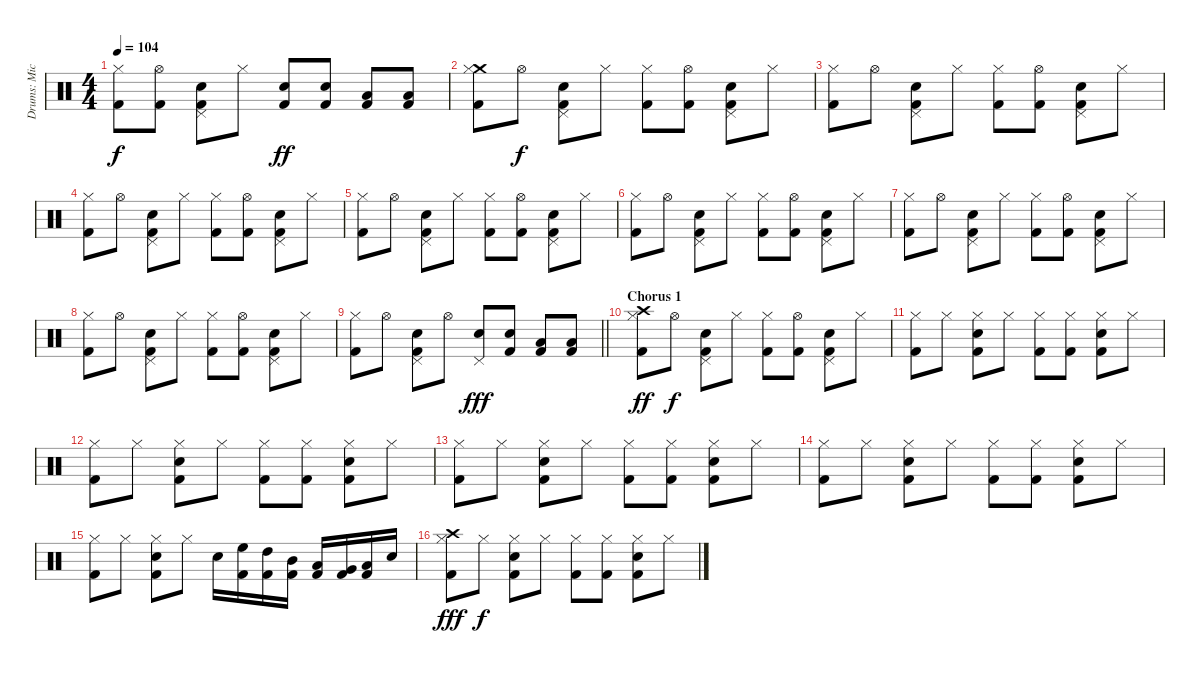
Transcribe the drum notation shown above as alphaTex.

\track ("Drums: Mick Fleetwood" "Drums: Mic") {instrument percussion}
\staff {score}
\articulation defaults
\ts (4 4)
\tempo 104
\clef neutral
\ks c
("Hi-Hat (closed)" "Kick (hit) 2").8{dy f} ("Hi-Hat (open)" "Kick (hit) 2").8 ("Pedal Hi-Hat (hit)" "Snare (hit) 2" "Kick (hit) 2").8 "Hi-Hat (closed)".8 ("Electric Snare (hit)" "Kick (hit) 2").8{dy ff} ("Electric Snare (hit)" "Kick (hit) 2").8 ("Low Tom (hit)" "Kick (hit) 2").8 ("Low Floor Tom (hit)" "Kick (hit) 2").8 |
("Crash medium (hit)" "Hi-Hat (closed)" "Kick (hit) 2").8 "Hi-Hat (open)".8{dy f} ("Pedal Hi-Hat (hit)" "Snare (hit) 2" "Kick (hit) 2").8 "Hi-Hat (closed)".8 ("Hi-Hat (closed)" "Kick (hit) 2").8 ("Hi-Hat (open)" "Kick (hit) 2").8 ("Pedal Hi-Hat (hit)" "Snare (hit) 2" "Kick (hit) 2").8 "Hi-Hat (closed)".8 |
("Hi-Hat (closed)" "Kick (hit) 2").8 "Hi-Hat (open)".8 ("Pedal Hi-Hat (hit)" "Snare (hit) 2" "Kick (hit) 2").8 "Hi-Hat (closed)".8 ("Hi-Hat (closed)" "Kick (hit) 2").8 ("Hi-Hat (open)" "Kick (hit) 2").8 ("Pedal Hi-Hat (hit)" "Snare (hit) 2" "Kick (hit) 2").8 "Hi-Hat (closed)".8 |
("Hi-Hat (closed)" "Kick (hit) 2").8 "Hi-Hat (open)".8 ("Pedal Hi-Hat (hit)" "Snare (hit) 2" "Kick (hit) 2").8 "Hi-Hat (closed)".8 ("Hi-Hat (closed)" "Kick (hit) 2").8 ("Hi-Hat (open)" "Kick (hit) 2").8 ("Pedal Hi-Hat (hit)" "Snare (hit) 2" "Kick (hit) 2").8 "Hi-Hat (closed)".8 |
("Hi-Hat (closed)" "Kick (hit) 2").8 "Hi-Hat (open)".8 ("Pedal Hi-Hat (hit)" "Snare (hit) 2" "Kick (hit) 2").8 "Hi-Hat (closed)".8 ("Hi-Hat (closed)" "Kick (hit) 2").8 ("Hi-Hat (open)" "Kick (hit) 2").8 ("Pedal Hi-Hat (hit)" "Snare (hit) 2" "Kick (hit) 2").8 "Hi-Hat (closed)".8 |
("Hi-Hat (closed)" "Kick (hit) 2").8 "Hi-Hat (open)".8 ("Pedal Hi-Hat (hit)" "Snare (hit) 2" "Kick (hit) 2").8 "Hi-Hat (closed)".8 ("Hi-Hat (closed)" "Kick (hit) 2").8 ("Hi-Hat (open)" "Kick (hit) 2").8 ("Pedal Hi-Hat (hit)" "Snare (hit) 2" "Kick (hit) 2").8 "Hi-Hat (closed)".8 |
("Hi-Hat (closed)" "Kick (hit) 2").8 "Hi-Hat (open)".8 ("Pedal Hi-Hat (hit)" "Snare (hit) 2" "Kick (hit) 2").8 "Hi-Hat (closed)".8 ("Hi-Hat (closed)" "Kick (hit) 2").8 ("Hi-Hat (open)" "Kick (hit) 2").8 ("Pedal Hi-Hat (hit)" "Snare (hit) 2" "Kick (hit) 2").8 "Hi-Hat (closed)".8 |
("Hi-Hat (closed)" "Kick (hit) 2").8 "Hi-Hat (open)".8 ("Pedal Hi-Hat (hit)" "Snare (hit) 2" "Kick (hit) 2").8 "Hi-Hat (closed)".8 ("Hi-Hat (closed)" "Kick (hit) 2").8 ("Hi-Hat (open)" "Kick (hit) 2").8 ("Pedal Hi-Hat (hit)" "Snare (hit) 2" "Kick (hit) 2").8 "Hi-Hat (closed)".8 |
\barLineRight lightlight
("Hi-Hat (closed)" "Kick (hit) 2").8 "Hi-Hat (open)".8 ("Pedal Hi-Hat (hit)" "Snare (hit) 2" "Kick (hit) 2").8 "Hi-Hat (open)".8 ("Pedal Hi-Hat (hit)" "Snare (hit) 2").8{dy fff} ("Snare (hit) 2" "Kick (hit) 2").8 ("Low Tom (hit)" "Kick (hit) 2").8 ("Low Floor Tom (hit)" "Kick (hit) 2").8 |
\section ("" "Chorus 1")
("Crash high (hit)" "Hi-Hat (closed)" "Kick (hit) 2").8{dy ff} "Hi-Hat (open)".8{dy f} ("Pedal Hi-Hat (hit)" "Snare (hit) 2" "Kick (hit) 2").8 "Hi-Hat (closed)".8 ("Hi-Hat (closed)" "Kick (hit) 2").8 ("Hi-Hat (open)" "Kick (hit) 2").8 ("Pedal Hi-Hat (hit)" "Snare (hit) 2" "Kick (hit) 2").8 "Hi-Hat (closed)".8 |
("Hi-Hat (closed)" "Kick (hit) 2").8 "Hi-Hat (closed)".8 ("Hi-Hat (closed)" "Snare (hit) 2" "Kick (hit) 2").8 "Hi-Hat (closed)".8 ("Hi-Hat (closed)" "Kick (hit) 2").8 ("Hi-Hat (closed)" "Kick (hit) 2").8 ("Hi-Hat (closed)" "Snare (hit) 2" "Kick (hit) 2").8 "Hi-Hat (closed)".8 |
("Hi-Hat (closed)" "Kick (hit) 2").8 "Hi-Hat (closed)".8 ("Hi-Hat (closed)" "Snare (hit) 2" "Kick (hit) 2").8 "Hi-Hat (closed)".8 ("Hi-Hat (closed)" "Kick (hit) 2").8 ("Hi-Hat (closed)" "Kick (hit) 2").8 ("Hi-Hat (closed)" "Snare (hit) 2" "Kick (hit) 2").8 "Hi-Hat (closed)".8 |
("Hi-Hat (closed)" "Kick (hit) 2").8 "Hi-Hat (closed)".8 ("Hi-Hat (closed)" "Snare (hit) 2" "Kick (hit) 2").8 "Hi-Hat (closed)".8 ("Hi-Hat (closed)" "Kick (hit) 2").8 ("Hi-Hat (closed)" "Kick (hit) 2").8 ("Hi-Hat (closed)" "Snare (hit) 2" "Kick (hit) 2").8 "Hi-Hat (closed)".8 |
("Hi-Hat (closed)" "Kick (hit) 2").8 "Hi-Hat (closed)".8 ("Hi-Hat (closed)" "Snare (hit) 2" "Kick (hit) 2").8 "Hi-Hat (closed)".8 ("Hi-Hat (closed)" "Kick (hit) 2").8 ("Hi-Hat (closed)" "Kick (hit) 2").8 ("Hi-Hat (closed)" "Snare (hit) 2" "Kick (hit) 2").8 "Hi-Hat (closed)".8 |
("Hi-Hat (closed)" "Kick (hit) 2").8 "Hi-Hat (closed)".8 ("Hi-Hat (closed)" "Snare (hit) 2" "Kick (hit) 2").8 "Hi-Hat (closed)".8 "Snare (hit) 2".16 ("High Floor Tom (hit)" "Kick (hit) 2").16 ("High Tom (hit)" "Kick (hit) 2").16 ("Mid Tom (hit)" "Kick (hit) 2").16 ("Low Tom (hit)" "Kick (hit) 2").16 ("Very Low Tom (hit)" "Kick (hit) 2").16 ("Low Floor Tom (hit)" "Kick (hit) 2").16 "Snare (hit) 2".16 |
("Crash high (hit)" "Hi-Hat (closed)" "Kick (hit) 2").8{dy fff} "Hi-Hat (closed)".8{dy f} ("Hi-Hat (closed)" "Snare (hit) 2" "Kick (hit) 2").8 "Hi-Hat (closed)".8 ("Hi-Hat (closed)" "Kick (hit) 2").8 ("Hi-Hat (closed)" "Kick (hit) 2").8 ("Hi-Hat (closed)" "Snare (hit) 2" "Kick (hit) 2").8 "Hi-Hat (closed)".8
